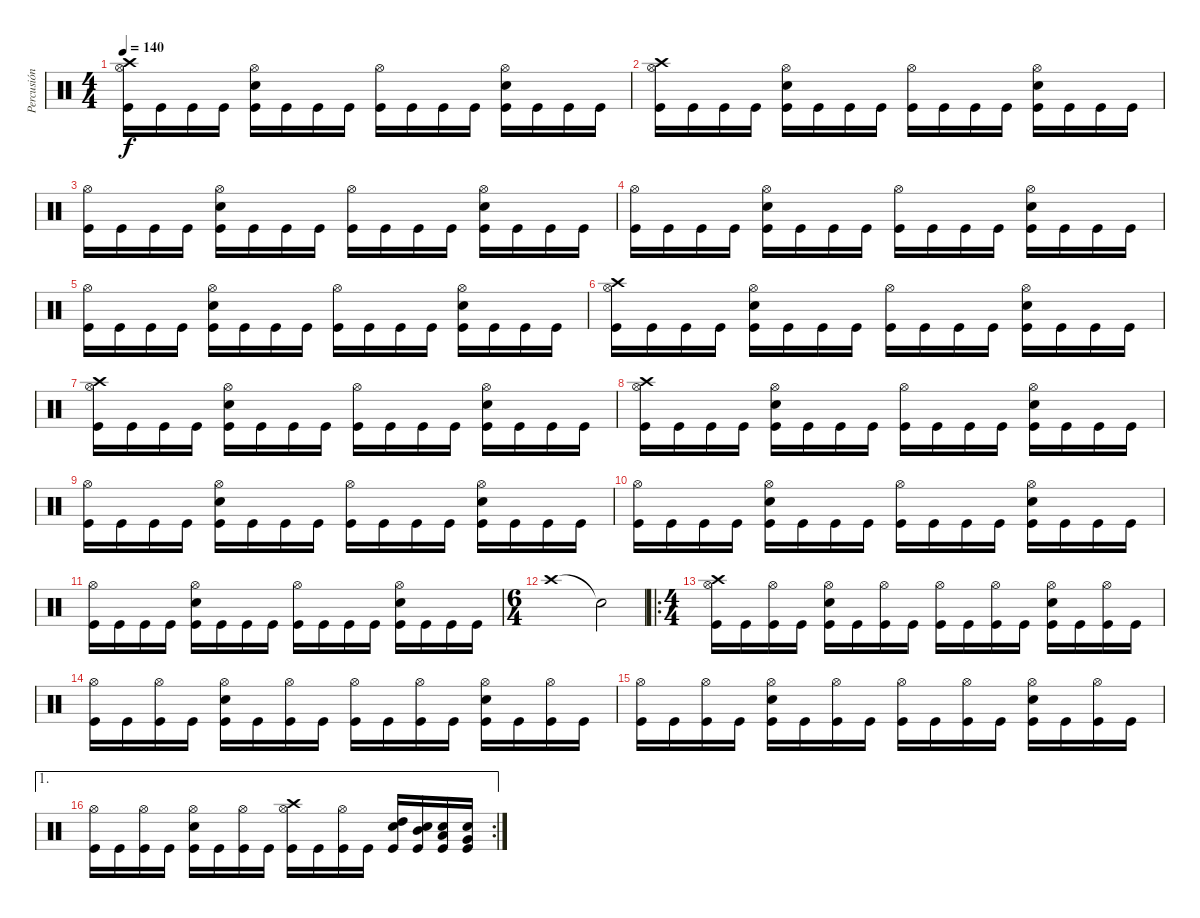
\track ("Percusión" "Percusión") {instrument percussion}
\staff {score}
\articulation defaults
\ts (4 4)
\tempo 140
\clef neutral
\ks c
("Crash high (hit)" "Hi-Hat (open)" "Kick (hit)").16{dy f} "Kick (hit)".16 "Kick (hit)".16 "Kick (hit)".16 ("Snare (hit) 2" "Hi-Hat (open)" "Kick (hit)").16 "Kick (hit)".16 "Kick (hit)".16 "Kick (hit)".16 ("Hi-Hat (open)" "Kick (hit)").16 "Kick (hit)".16 "Kick (hit)".16 "Kick (hit)".16 ("Snare (hit) 2" "Hi-Hat (open)" "Kick (hit)").16 "Kick (hit)".16 "Kick (hit)".16 "Kick (hit)".16 |
("Crash high (hit)" "Hi-Hat (open)" "Kick (hit)").16 "Kick (hit)".16 "Kick (hit)".16 "Kick (hit)".16 ("Snare (hit) 2" "Hi-Hat (open)" "Kick (hit)").16 "Kick (hit)".16 "Kick (hit)".16 "Kick (hit)".16 ("Hi-Hat (open)" "Kick (hit)").16 "Kick (hit)".16 "Kick (hit)".16 "Kick (hit)".16 ("Snare (hit) 2" "Hi-Hat (open)" "Kick (hit)").16 "Kick (hit)".16 "Kick (hit)".16 "Kick (hit)".16 |
("Hi-Hat (open)" "Kick (hit)").16 "Kick (hit)".16 "Kick (hit)".16 "Kick (hit)".16 ("Snare (hit) 2" "Hi-Hat (open)" "Kick (hit)").16 "Kick (hit)".16 "Kick (hit)".16 "Kick (hit)".16 ("Hi-Hat (open)" "Kick (hit)").16 "Kick (hit)".16 "Kick (hit)".16 "Kick (hit)".16 ("Snare (hit) 2" "Hi-Hat (open)" "Kick (hit)").16 "Kick (hit)".16 "Kick (hit)".16 "Kick (hit)".16 |
("Hi-Hat (open)" "Kick (hit)").16 "Kick (hit)".16 "Kick (hit)".16 "Kick (hit)".16 ("Snare (hit) 2" "Hi-Hat (open)" "Kick (hit)").16 "Kick (hit)".16 "Kick (hit)".16 "Kick (hit)".16 ("Hi-Hat (open)" "Kick (hit)").16 "Kick (hit)".16 "Kick (hit)".16 "Kick (hit)".16 ("Snare (hit) 2" "Hi-Hat (open)" "Kick (hit)").16 "Kick (hit)".16 "Kick (hit)".16 "Kick (hit)".16 |
("Hi-Hat (open)" "Kick (hit)").16 "Kick (hit)".16 "Kick (hit)".16 "Kick (hit)".16 ("Snare (hit) 2" "Hi-Hat (open)" "Kick (hit)").16 "Kick (hit)".16 "Kick (hit)".16 "Kick (hit)".16 ("Hi-Hat (open)" "Kick (hit)").16 "Kick (hit)".16 "Kick (hit)".16 "Kick (hit)".16 ("Snare (hit) 2" "Hi-Hat (open)" "Kick (hit)").16 "Kick (hit)".16 "Kick (hit)".16 "Kick (hit)".16 |
("Crash high (hit)" "Hi-Hat (open)" "Kick (hit)").16 "Kick (hit)".16 "Kick (hit)".16 "Kick (hit)".16 ("Snare (hit) 2" "Hi-Hat (open)" "Kick (hit)").16 "Kick (hit)".16 "Kick (hit)".16 "Kick (hit)".16 ("Hi-Hat (open)" "Kick (hit)").16 "Kick (hit)".16 "Kick (hit)".16 "Kick (hit)".16 ("Snare (hit) 2" "Hi-Hat (open)" "Kick (hit)").16 "Kick (hit)".16 "Kick (hit)".16 "Kick (hit)".16 |
("Crash high (hit)" "Hi-Hat (open)" "Kick (hit)").16 "Kick (hit)".16 "Kick (hit)".16 "Kick (hit)".16 ("Snare (hit) 2" "Hi-Hat (open)" "Kick (hit)").16 "Kick (hit)".16 "Kick (hit)".16 "Kick (hit)".16 ("Hi-Hat (open)" "Kick (hit)").16 "Kick (hit)".16 "Kick (hit)".16 "Kick (hit)".16 ("Snare (hit) 2" "Hi-Hat (open)" "Kick (hit)").16 "Kick (hit)".16 "Kick (hit)".16 "Kick (hit)".16 |
("Crash high (hit)" "Hi-Hat (open)" "Kick (hit)").16 "Kick (hit)".16 "Kick (hit)".16 "Kick (hit)".16 ("Snare (hit) 2" "Hi-Hat (open)" "Kick (hit)").16 "Kick (hit)".16 "Kick (hit)".16 "Kick (hit)".16 ("Hi-Hat (open)" "Kick (hit)").16 "Kick (hit)".16 "Kick (hit)".16 "Kick (hit)".16 ("Snare (hit) 2" "Hi-Hat (open)" "Kick (hit)").16 "Kick (hit)".16 "Kick (hit)".16 "Kick (hit)".16 |
("Hi-Hat (open)" "Kick (hit)").16 "Kick (hit)".16 "Kick (hit)".16 "Kick (hit)".16 ("Snare (hit) 2" "Hi-Hat (open)" "Kick (hit)").16 "Kick (hit)".16 "Kick (hit)".16 "Kick (hit)".16 ("Hi-Hat (open)" "Kick (hit)").16 "Kick (hit)".16 "Kick (hit)".16 "Kick (hit)".16 ("Snare (hit) 2" "Hi-Hat (open)" "Kick (hit)").16 "Kick (hit)".16 "Kick (hit)".16 "Kick (hit)".16 |
("Hi-Hat (open)" "Kick (hit)").16 "Kick (hit)".16 "Kick (hit)".16 "Kick (hit)".16 ("Snare (hit) 2" "Hi-Hat (open)" "Kick (hit)").16 "Kick (hit)".16 "Kick (hit)".16 "Kick (hit)".16 ("Hi-Hat (open)" "Kick (hit)").16 "Kick (hit)".16 "Kick (hit)".16 "Kick (hit)".16 ("Snare (hit) 2" "Hi-Hat (open)" "Kick (hit)").16 "Kick (hit)".16 "Kick (hit)".16 "Kick (hit)".16 |
("Hi-Hat (open)" "Kick (hit)").16 "Kick (hit)".16 "Kick (hit)".16 "Kick (hit)".16 ("Snare (hit) 2" "Hi-Hat (open)" "Kick (hit)").16 "Kick (hit)".16 "Kick (hit)".16 "Kick (hit)".16 ("Hi-Hat (open)" "Kick (hit)").16 "Kick (hit)".16 "Kick (hit)".16 "Kick (hit)".16 ("Snare (hit) 2" "Hi-Hat (open)" "Kick (hit)").16 "Kick (hit)".16 "Kick (hit)".16 "Kick (hit)".16 |
\ts (6 4)
"Crash high (hit)".1 "Snare (hit)"{t}.2 |
\ro
\ts (4 4)
("Crash high (hit)" "Hi-Hat (open)" "Kick (hit)").16 "Kick (hit)".16 ("Hi-Hat (open)" "Kick (hit)").16 "Kick (hit)".16 ("Snare (hit) 2" "Hi-Hat (open)" "Kick (hit)").16 "Kick (hit)".16 ("Hi-Hat (open)" "Kick (hit)").16 "Kick (hit)".16 ("Hi-Hat (open)" "Kick (hit)").16 "Kick (hit)".16 ("Hi-Hat (open)" "Kick (hit)").16 "Kick (hit)".16 ("Snare (hit) 2" "Hi-Hat (open)" "Kick (hit)").16 "Kick (hit)".16 ("Hi-Hat (open)" "Kick (hit)").16 "Kick (hit)".16 |
("Hi-Hat (open)" "Kick (hit)").16 "Kick (hit)".16 ("Hi-Hat (open)" "Kick (hit)").16 "Kick (hit)".16 ("Snare (hit) 2" "Hi-Hat (open)" "Kick (hit)").16 "Kick (hit)".16 ("Hi-Hat (open)" "Kick (hit)").16 "Kick (hit)".16 ("Hi-Hat (open)" "Kick (hit)").16 "Kick (hit)".16 ("Hi-Hat (open)" "Kick (hit)").16 "Kick (hit)".16 ("Snare (hit) 2" "Hi-Hat (open)" "Kick (hit)").16 "Kick (hit)".16 ("Hi-Hat (open)" "Kick (hit)").16 "Kick (hit)".16 |
("Hi-Hat (open)" "Kick (hit)").16 "Kick (hit)".16 ("Hi-Hat (open)" "Kick (hit)").16 "Kick (hit)".16 ("Snare (hit) 2" "Hi-Hat (open)" "Kick (hit)").16 "Kick (hit)".16 ("Hi-Hat (open)" "Kick (hit)").16 "Kick (hit)".16 ("Hi-Hat (open)" "Kick (hit)").16 "Kick (hit)".16 ("Hi-Hat (open)" "Kick (hit)").16 "Kick (hit)".16 ("Snare (hit) 2" "Hi-Hat (open)" "Kick (hit)").16 "Kick (hit)".16 ("Hi-Hat (open)" "Kick (hit)").16 "Kick (hit)".16 |
\ae 1
\rc 2
("Hi-Hat (open)" "Kick (hit)").16 "Kick (hit)".16 ("Hi-Hat (open)" "Kick (hit)").16 "Kick (hit)".16 ("Snare (hit) 2" "Hi-Hat (open)" "Kick (hit)").16 "Kick (hit)".16 ("Hi-Hat (open)" "Kick (hit)").16 "Kick (hit)".16 ("Crash high (hit)" "Hi-Hat (open)" "Kick (hit)").16 "Kick (hit)".16 ("Hi-Hat (open)" "Kick (hit)").16 "Kick (hit)".16 ("Snare (hit) 2" "High Tom (hit)" "Kick (hit)").16 ("Snare (hit) 2" "Mid Tom (hit)" "Kick (hit)").16 ("Snare (hit) 2" "Low Tom (hit)" "Kick (hit)").16 ("Snare (hit) 2" "Very Low Tom (hit)" "Kick (hit)").16
